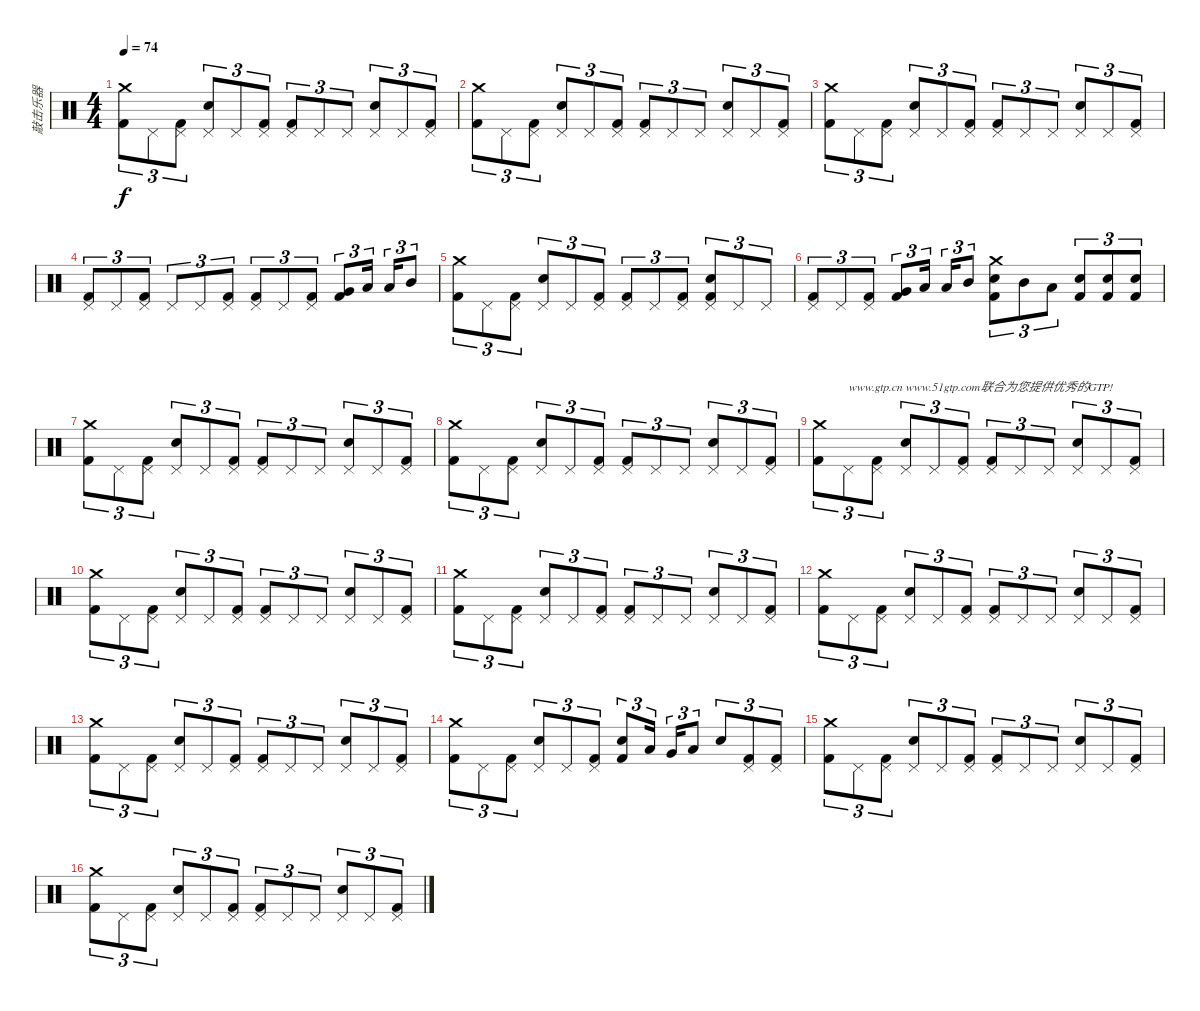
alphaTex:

\track ("敲击乐器" "敲击乐器") {instrument percussion}
\staff {score}
\articulation defaults
\ts (4 4)
\tempo 74
\clef neutral
\ks c
("Crash medium (hit)" "Kick (hit) 2").8{tu (3 2) dy f} "Pedal Hi-Hat (hit)".8{tu (3 2)} ("Pedal Hi-Hat (hit)" "Kick (hit) 2").8{tu (3 2)} ("Electric Snare (hit)" "Pedal Hi-Hat (hit)").8{tu (3 2)} "Pedal Hi-Hat (hit)".8{tu (3 2)} ("Pedal Hi-Hat (hit)" "Kick (hit) 2").8{tu (3 2)} ("Pedal Hi-Hat (hit)" "Kick (hit) 2").8{tu (3 2)} "Pedal Hi-Hat (hit)".8{tu (3 2)} "Pedal Hi-Hat (hit)".8{tu (3 2)} ("Electric Snare (hit)" "Pedal Hi-Hat (hit)").8{tu (3 2)} "Pedal Hi-Hat (hit)".8{tu (3 2)} ("Pedal Hi-Hat (hit)" "Kick (hit) 2").8{tu (3 2)} |
("Crash medium (hit)" "Kick (hit) 2").8{tu (3 2)} "Pedal Hi-Hat (hit)".8{tu (3 2)} ("Pedal Hi-Hat (hit)" "Kick (hit) 2").8{tu (3 2)} ("Electric Snare (hit)" "Pedal Hi-Hat (hit)").8{tu (3 2)} "Pedal Hi-Hat (hit)".8{tu (3 2)} ("Pedal Hi-Hat (hit)" "Kick (hit) 2").8{tu (3 2)} ("Pedal Hi-Hat (hit)" "Kick (hit) 2").8{tu (3 2)} "Pedal Hi-Hat (hit)".8{tu (3 2)} "Pedal Hi-Hat (hit)".8{tu (3 2)} ("Electric Snare (hit)" "Pedal Hi-Hat (hit)").8{tu (3 2)} "Pedal Hi-Hat (hit)".8{tu (3 2)} ("Pedal Hi-Hat (hit)" "Kick (hit) 2").8{tu (3 2)} |
("Crash medium (hit)" "Kick (hit) 2").8{tu (3 2)} "Pedal Hi-Hat (hit)".8{tu (3 2)} ("Pedal Hi-Hat (hit)" "Kick (hit) 2").8{tu (3 2)} ("Electric Snare (hit)" "Pedal Hi-Hat (hit)").8{tu (3 2)} "Pedal Hi-Hat (hit)".8{tu (3 2)} ("Pedal Hi-Hat (hit)" "Kick (hit) 2").8{tu (3 2)} ("Pedal Hi-Hat (hit)" "Kick (hit) 2").8{tu (3 2)} "Pedal Hi-Hat (hit)".8{tu (3 2)} "Pedal Hi-Hat (hit)".8{tu (3 2)} ("Electric Snare (hit)" "Pedal Hi-Hat (hit)").8{tu (3 2)} "Pedal Hi-Hat (hit)".8{tu (3 2)} ("Pedal Hi-Hat (hit)" "Kick (hit) 2").8{tu (3 2)} |
("Pedal Hi-Hat (hit)" "Kick (hit) 2").8{tu (3 2)} "Pedal Hi-Hat (hit)".8{tu (3 2)} ("Pedal Hi-Hat (hit)" "Kick (hit) 2").8{tu (3 2)} "Pedal Hi-Hat (hit)".8{tu (3 2)} "Pedal Hi-Hat (hit)".8{tu (3 2)} ("Pedal Hi-Hat (hit)" "Kick (hit) 2").8{tu (3 2)} ("Pedal Hi-Hat (hit)" "Kick (hit) 2").8{tu (3 2)} "Pedal Hi-Hat (hit)".8{tu (3 2)} ("Pedal Hi-Hat (hit)" "Kick (hit) 2").8{tu (3 2)} ("Very Low Tom (hit)" "Kick (hit) 2").8{tu (3 2)} "Low Tom (hit)".16{tu (3 2) beam splitsecondary} "Low Tom (hit)".16{tu (3 2)} "Mid Tom (hit)".8{tu (3 2)} |
("Crash medium (hit)" "Kick (hit) 2").8{tu (3 2)} "Pedal Hi-Hat (hit)".8{tu (3 2)} ("Pedal Hi-Hat (hit)" "Kick (hit) 2").8{tu (3 2)} ("Electric Snare (hit)" "Pedal Hi-Hat (hit)").8{tu (3 2)} "Pedal Hi-Hat (hit)".8{tu (3 2)} ("Pedal Hi-Hat (hit)" "Kick (hit) 2").8{tu (3 2)} ("Pedal Hi-Hat (hit)" "Kick (hit) 2").8{tu (3 2)} "Pedal Hi-Hat (hit)".8{tu (3 2)} ("Pedal Hi-Hat (hit)" "Kick (hit) 2").8{tu (3 2)} ("Electric Snare (hit)" "Pedal Hi-Hat (hit)" "Kick (hit) 2").8{tu (3 2)} "Pedal Hi-Hat (hit)".8{tu (3 2)} "Pedal Hi-Hat (hit)".8{tu (3 2)} |
("Pedal Hi-Hat (hit)" "Kick (hit) 2").8{tu (3 2)} "Pedal Hi-Hat (hit)".8{tu (3 2)} ("Pedal Hi-Hat (hit)" "Kick (hit) 2").8{tu (3 2)} ("Very Low Tom (hit)" "Kick (hit) 2").8{tu (3 2)} "Low Tom (hit)".16{tu (3 2) beam splitsecondary} "Low Tom (hit)".16{tu (3 2)} "Mid Tom (hit)".8{tu (3 2)} ("Electric Snare (hit)" "Crash medium (hit)" "Kick (hit) 2").8{tu (3 2)} "Mid Tom (hit)".8{tu (3 2)} "Low Tom (hit)".8{tu (3 2)} ("Electric Snare (hit)" "Kick (hit) 2").8{tu (3 2)} ("Electric Snare (hit)" "Kick (hit) 2").8{tu (3 2)} ("Electric Snare (hit)" "Kick (hit) 2").8{tu (3 2)} |
("Crash medium (hit)" "Kick (hit) 2").8{tu (3 2)} "Pedal Hi-Hat (hit)".8{tu (3 2)} ("Pedal Hi-Hat (hit)" "Kick (hit) 2").8{tu (3 2)} ("Electric Snare (hit)" "Pedal Hi-Hat (hit)").8{tu (3 2)} "Pedal Hi-Hat (hit)".8{tu (3 2)} ("Pedal Hi-Hat (hit)" "Kick (hit) 2").8{tu (3 2)} ("Pedal Hi-Hat (hit)" "Kick (hit) 2").8{tu (3 2)} "Pedal Hi-Hat (hit)".8{tu (3 2)} "Pedal Hi-Hat (hit)".8{tu (3 2)} ("Electric Snare (hit)" "Pedal Hi-Hat (hit)").8{tu (3 2)} "Pedal Hi-Hat (hit)".8{tu (3 2)} ("Pedal Hi-Hat (hit)" "Kick (hit) 2").8{tu (3 2)} |
("Crash medium (hit)" "Kick (hit) 2").8{tu (3 2)} "Pedal Hi-Hat (hit)".8{tu (3 2)} ("Pedal Hi-Hat (hit)" "Kick (hit) 2").8{tu (3 2)} ("Electric Snare (hit)" "Pedal Hi-Hat (hit)").8{tu (3 2)} "Pedal Hi-Hat (hit)".8{tu (3 2)} ("Pedal Hi-Hat (hit)" "Kick (hit) 2").8{tu (3 2)} ("Pedal Hi-Hat (hit)" "Kick (hit) 2").8{tu (3 2)} "Pedal Hi-Hat (hit)".8{tu (3 2)} "Pedal Hi-Hat (hit)".8{tu (3 2)} ("Electric Snare (hit)" "Pedal Hi-Hat (hit)").8{tu (3 2)} "Pedal Hi-Hat (hit)".8{tu (3 2)} ("Pedal Hi-Hat (hit)" "Kick (hit) 2").8{tu (3 2)} |
("Crash medium (hit)" "Kick (hit) 2").8{tu (3 2)} "Pedal Hi-Hat (hit)".8{tu (3 2) txt "www.gtp.cn www.51gtp.com联合为您提供优秀的GTP!"} ("Pedal Hi-Hat (hit)" "Kick (hit) 2").8{tu (3 2)} ("Electric Snare (hit)" "Pedal Hi-Hat (hit)").8{tu (3 2)} "Pedal Hi-Hat (hit)".8{tu (3 2)} ("Pedal Hi-Hat (hit)" "Kick (hit) 2").8{tu (3 2)} ("Pedal Hi-Hat (hit)" "Kick (hit) 2").8{tu (3 2)} "Pedal Hi-Hat (hit)".8{tu (3 2)} "Pedal Hi-Hat (hit)".8{tu (3 2)} ("Electric Snare (hit)" "Pedal Hi-Hat (hit)").8{tu (3 2)} "Pedal Hi-Hat (hit)".8{tu (3 2)} ("Pedal Hi-Hat (hit)" "Kick (hit) 2").8{tu (3 2)} |
("Crash medium (hit)" "Kick (hit) 2").8{tu (3 2)} "Pedal Hi-Hat (hit)".8{tu (3 2)} ("Pedal Hi-Hat (hit)" "Kick (hit) 2").8{tu (3 2)} ("Electric Snare (hit)" "Pedal Hi-Hat (hit)").8{tu (3 2)} "Pedal Hi-Hat (hit)".8{tu (3 2)} ("Pedal Hi-Hat (hit)" "Kick (hit) 2").8{tu (3 2)} ("Pedal Hi-Hat (hit)" "Kick (hit) 2").8{tu (3 2)} "Pedal Hi-Hat (hit)".8{tu (3 2)} "Pedal Hi-Hat (hit)".8{tu (3 2)} ("Electric Snare (hit)" "Pedal Hi-Hat (hit)").8{tu (3 2)} "Pedal Hi-Hat (hit)".8{tu (3 2)} ("Pedal Hi-Hat (hit)" "Kick (hit) 2").8{tu (3 2)} |
("Crash medium (hit)" "Kick (hit) 2").8{tu (3 2)} "Pedal Hi-Hat (hit)".8{tu (3 2)} ("Pedal Hi-Hat (hit)" "Kick (hit) 2").8{tu (3 2)} ("Electric Snare (hit)" "Pedal Hi-Hat (hit)").8{tu (3 2)} "Pedal Hi-Hat (hit)".8{tu (3 2)} ("Pedal Hi-Hat (hit)" "Kick (hit) 2").8{tu (3 2)} ("Pedal Hi-Hat (hit)" "Kick (hit) 2").8{tu (3 2)} "Pedal Hi-Hat (hit)".8{tu (3 2)} "Pedal Hi-Hat (hit)".8{tu (3 2)} ("Electric Snare (hit)" "Pedal Hi-Hat (hit)").8{tu (3 2)} "Pedal Hi-Hat (hit)".8{tu (3 2)} ("Pedal Hi-Hat (hit)" "Kick (hit) 2").8{tu (3 2)} |
("Crash medium (hit)" "Kick (hit) 2").8{tu (3 2)} "Pedal Hi-Hat (hit)".8{tu (3 2)} ("Pedal Hi-Hat (hit)" "Kick (hit) 2").8{tu (3 2)} ("Electric Snare (hit)" "Pedal Hi-Hat (hit)").8{tu (3 2)} "Pedal Hi-Hat (hit)".8{tu (3 2)} ("Pedal Hi-Hat (hit)" "Kick (hit) 2").8{tu (3 2)} ("Pedal Hi-Hat (hit)" "Kick (hit) 2").8{tu (3 2)} "Pedal Hi-Hat (hit)".8{tu (3 2)} "Pedal Hi-Hat (hit)".8{tu (3 2)} ("Electric Snare (hit)" "Pedal Hi-Hat (hit)").8{tu (3 2)} "Pedal Hi-Hat (hit)".8{tu (3 2)} ("Pedal Hi-Hat (hit)" "Kick (hit) 2").8{tu (3 2)} |
("Crash medium (hit)" "Kick (hit) 2").8{tu (3 2)} "Pedal Hi-Hat (hit)".8{tu (3 2)} ("Pedal Hi-Hat (hit)" "Kick (hit) 2").8{tu (3 2)} ("Electric Snare (hit)" "Pedal Hi-Hat (hit)").8{tu (3 2)} "Pedal Hi-Hat (hit)".8{tu (3 2)} ("Pedal Hi-Hat (hit)" "Kick (hit) 2").8{tu (3 2)} ("Pedal Hi-Hat (hit)" "Kick (hit) 2").8{tu (3 2)} "Pedal Hi-Hat (hit)".8{tu (3 2)} "Pedal Hi-Hat (hit)".8{tu (3 2)} ("Electric Snare (hit)" "Pedal Hi-Hat (hit)").8{tu (3 2)} "Pedal Hi-Hat (hit)".8{tu (3 2)} ("Pedal Hi-Hat (hit)" "Kick (hit) 2").8{tu (3 2)} |
("Crash medium (hit)" "Kick (hit) 2").8{tu (3 2)} "Pedal Hi-Hat (hit)".8{tu (3 2)} ("Pedal Hi-Hat (hit)" "Kick (hit) 2").8{tu (3 2)} ("Electric Snare (hit)" "Pedal Hi-Hat (hit)").8{tu (3 2)} "Pedal Hi-Hat (hit)".8{tu (3 2)} ("Pedal Hi-Hat (hit)" "Kick (hit) 2").8{tu (3 2)} ("Electric Snare (hit)" "Kick (hit) 2").8{tu (3 2)} "Low Tom (hit)".16{tu (3 2) beam splitsecondary} "Very Low Tom (hit)".16{tu (3 2)} "Low Floor Tom (hit)".8{tu (3 2)} "Electric Snare (hit)".8{tu (3 2)} ("Pedal Hi-Hat (hit)" "Kick (hit) 2").8{tu (3 2)} ("Pedal Hi-Hat (hit)" "Kick (hit) 2").8{tu (3 2)} |
("Crash medium (hit)" "Kick (hit) 2").8{tu (3 2)} "Pedal Hi-Hat (hit)".8{tu (3 2)} ("Pedal Hi-Hat (hit)" "Kick (hit) 2").8{tu (3 2)} ("Electric Snare (hit)" "Pedal Hi-Hat (hit)").8{tu (3 2)} "Pedal Hi-Hat (hit)".8{tu (3 2)} ("Pedal Hi-Hat (hit)" "Kick (hit) 2").8{tu (3 2)} ("Pedal Hi-Hat (hit)" "Kick (hit) 2").8{tu (3 2)} "Pedal Hi-Hat (hit)".8{tu (3 2)} "Pedal Hi-Hat (hit)".8{tu (3 2)} ("Electric Snare (hit)" "Pedal Hi-Hat (hit)").8{tu (3 2)} "Pedal Hi-Hat (hit)".8{tu (3 2)} ("Pedal Hi-Hat (hit)" "Kick (hit) 2").8{tu (3 2)} |
("Crash medium (hit)" "Kick (hit) 2").8{tu (3 2)} "Pedal Hi-Hat (hit)".8{tu (3 2)} ("Pedal Hi-Hat (hit)" "Kick (hit) 2").8{tu (3 2)} ("Electric Snare (hit)" "Pedal Hi-Hat (hit)").8{tu (3 2)} "Pedal Hi-Hat (hit)".8{tu (3 2)} ("Pedal Hi-Hat (hit)" "Kick (hit) 2").8{tu (3 2)} ("Pedal Hi-Hat (hit)" "Kick (hit) 2").8{tu (3 2)} "Pedal Hi-Hat (hit)".8{tu (3 2)} "Pedal Hi-Hat (hit)".8{tu (3 2)} ("Electric Snare (hit)" "Pedal Hi-Hat (hit)").8{tu (3 2)} "Pedal Hi-Hat (hit)".8{tu (3 2)} ("Pedal Hi-Hat (hit)" "Kick (hit) 2").8{tu (3 2)}
